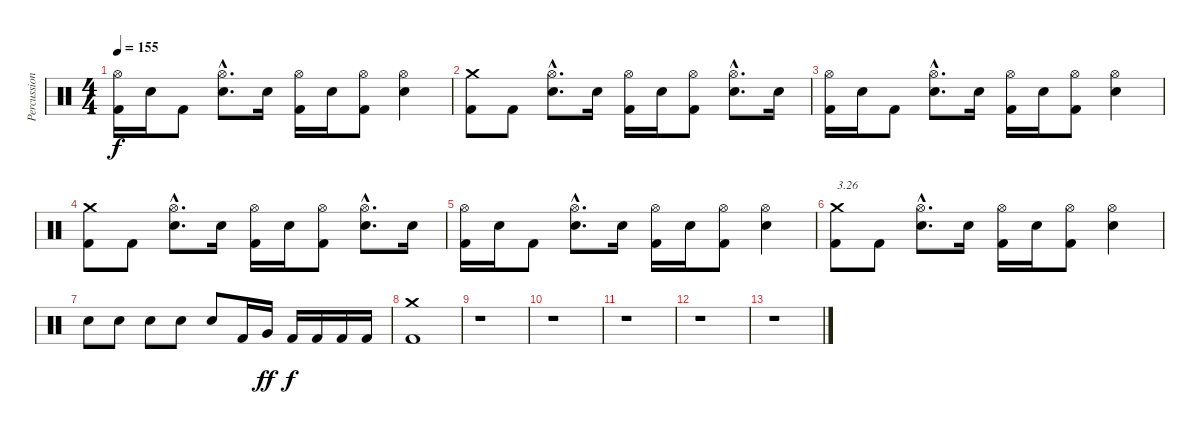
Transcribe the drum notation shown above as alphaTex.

\track ("Percussions" "Percussion") {instrument percussion}
\staff {score}
\articulation defaults
\ts (4 4)
\tempo 155
\clef neutral
\ks c
("Kick (hit) 2" "Hi-Hat (open)").16{dy f} "Electric Snare (hit)".16 "Kick (hit) 2".8 ("Electric Snare (hit)"{hac} "Hi-Hat (open)"{hac}).8{d} "Electric Snare (hit)".16 ("Kick (hit) 2" "Hi-Hat (open)").16 "Electric Snare (hit)".16 ("Kick (hit) 2" "Hi-Hat (open)").8 ("Electric Snare (hit)" "Hi-Hat (open)").4 |
("Kick (hit) 2" "Crash medium (hit)").8 "Kick (hit) 2".8 ("Electric Snare (hit)"{hac} "Hi-Hat (open)"{hac}).8{d} "Electric Snare (hit)".16 ("Kick (hit) 2" "Hi-Hat (open)").16 "Electric Snare (hit)".16 ("Kick (hit) 2" "Hi-Hat (open)").8 ("Electric Snare (hit)"{hac} "Hi-Hat (open)"{hac}).8{d} "Electric Snare (hit)".16 |
("Kick (hit) 2" "Hi-Hat (open)").16 "Electric Snare (hit)".16 "Kick (hit) 2".8 ("Electric Snare (hit)"{hac} "Hi-Hat (open)"{hac}).8{d} "Electric Snare (hit)".16 ("Kick (hit) 2" "Hi-Hat (open)").16 "Electric Snare (hit)".16 ("Kick (hit) 2" "Hi-Hat (open)").8 ("Electric Snare (hit)" "Hi-Hat (open)").4 |
("Kick (hit) 2" "Crash medium (hit)").8 "Kick (hit) 2".8 ("Electric Snare (hit)"{hac} "Hi-Hat (open)"{hac}).8{d} "Electric Snare (hit)".16 ("Kick (hit) 2" "Hi-Hat (open)").16 "Electric Snare (hit)".16 ("Kick (hit) 2" "Hi-Hat (open)").8 ("Electric Snare (hit)"{hac} "Hi-Hat (open)"{hac}).8{d} "Electric Snare (hit)".16 |
("Kick (hit) 2" "Hi-Hat (open)").16 "Electric Snare (hit)".16 "Kick (hit) 2".8 ("Electric Snare (hit)"{hac} "Hi-Hat (open)"{hac}).8{d} "Electric Snare (hit)".16 ("Kick (hit) 2" "Hi-Hat (open)").16 "Electric Snare (hit)".16 ("Kick (hit) 2" "Hi-Hat (open)").8 ("Electric Snare (hit)" "Hi-Hat (open)").4 |
("Kick (hit) 2" "Crash medium (hit)").8{txt "3.26"} "Kick (hit) 2".8 ("Electric Snare (hit)"{hac} "Hi-Hat (open)"{hac}).8{d} "Electric Snare (hit)".16 ("Kick (hit) 2" "Hi-Hat (open)").16 "Electric Snare (hit)".16 ("Kick (hit) 2" "Hi-Hat (open)").8 ("Electric Snare (hit)" "Hi-Hat (open)").4 |
"Electric Snare (hit)".8 "Electric Snare (hit)".8 "Electric Snare (hit)".8 "Electric Snare (hit)".8 "Electric Snare (hit)".8 "Kick (hit) 2".16 "Very Low Tom (hit)".16{dy ff} "Kick (hit) 2".16{dy f} "Kick (hit) 2".16 "Kick (hit) 2".16 "Kick (hit) 2".16 |
("Kick (hit) 2" "Crash medium (hit)").1 |
r.1 |
r.1 |
r.1 |
r.1 |
r.1
